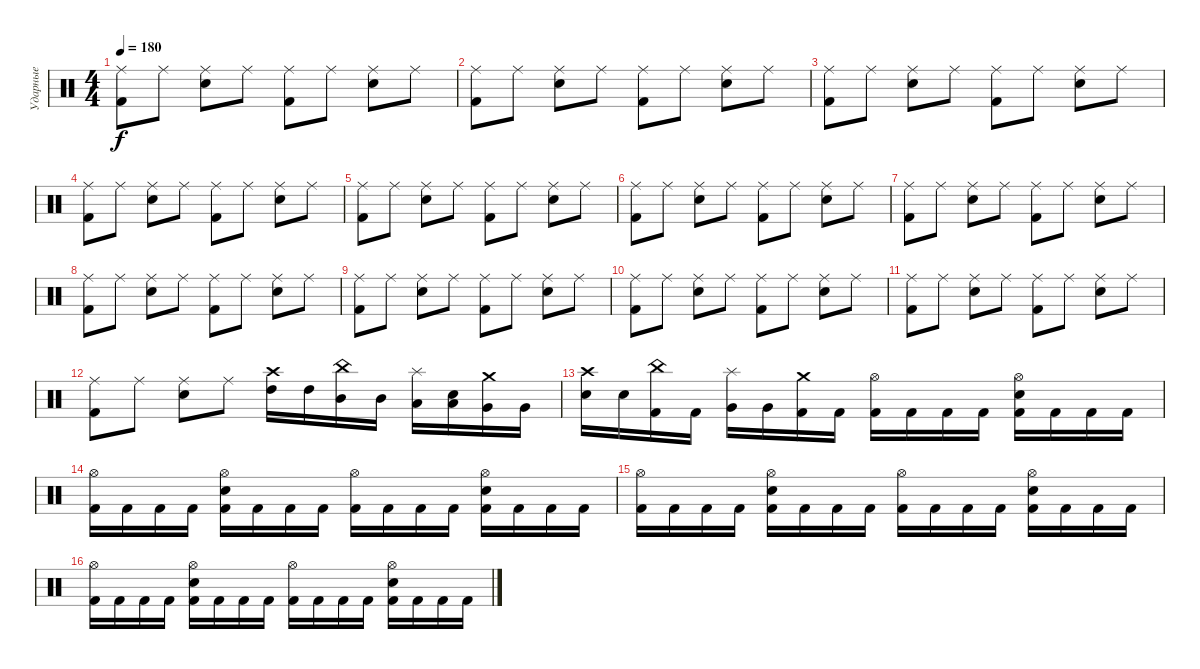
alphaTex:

\track ("Ударные" "Ударные") {instrument percussion}
\staff {score}
\articulation defaults
\ts (4 4)
\tempo 180
\clef neutral
\ks c
("Kick (hit) 2" "Ride (middle)").8{dy f} "Ride (middle)".8 ("Electric Snare (hit)" "Ride (middle)").8 "Ride (middle)".8 ("Kick (hit) 2" "Ride (middle)").8 "Ride (middle)".8 ("Electric Snare (hit)" "Ride (middle)").8 "Ride (middle)".8 |
("Kick (hit) 2" "Ride (middle)").8 "Ride (middle)".8 ("Electric Snare (hit)" "Ride (middle)").8 "Ride (middle)".8 ("Kick (hit) 2" "Ride (middle)").8 "Ride (middle)".8 ("Electric Snare (hit)" "Ride (middle)").8 "Ride (middle)".8 |
("Kick (hit) 2" "Ride (middle)").8 "Ride (middle)".8 ("Electric Snare (hit)" "Ride (middle)").8 "Ride (middle)".8 ("Kick (hit) 2" "Ride (middle)").8 "Ride (middle)".8 ("Electric Snare (hit)" "Ride (middle)").8 "Ride (middle)".8 |
("Kick (hit) 2" "Ride (middle)").8 "Ride (middle)".8 ("Electric Snare (hit)" "Ride (middle)").8 "Ride (middle)".8 ("Kick (hit) 2" "Ride (middle)").8 "Ride (middle)".8 ("Electric Snare (hit)" "Ride (middle)").8 "Ride (middle)".8 |
("Kick (hit) 2" "Ride (middle)").8 "Ride (middle)".8 ("Electric Snare (hit)" "Ride (middle)").8 "Ride (middle)".8 ("Kick (hit) 2" "Ride (middle)").8 "Ride (middle)".8 ("Electric Snare (hit)" "Ride (middle)").8 "Ride (middle)".8 |
("Kick (hit) 2" "Ride (middle)").8 "Ride (middle)".8 ("Electric Snare (hit)" "Ride (middle)").8 "Ride (middle)".8 ("Kick (hit) 2" "Ride (middle)").8 "Ride (middle)".8 ("Electric Snare (hit)" "Ride (middle)").8 "Ride (middle)".8 |
("Kick (hit) 2" "Ride (middle)").8 "Ride (middle)".8 ("Electric Snare (hit)" "Ride (middle)").8 "Ride (middle)".8 ("Kick (hit) 2" "Ride (middle)").8 "Ride (middle)".8 ("Electric Snare (hit)" "Ride (middle)").8 "Ride (middle)".8 |
("Kick (hit) 2" "Ride (middle)").8 "Ride (middle)".8 ("Electric Snare (hit)" "Ride (middle)").8 "Ride (middle)".8 ("Kick (hit) 2" "Ride (middle)").8 "Ride (middle)".8 ("Electric Snare (hit)" "Ride (middle)").8 "Ride (middle)".8 |
("Kick (hit) 2" "Ride (middle)").8 "Ride (middle)".8 ("Electric Snare (hit)" "Ride (middle)").8 "Ride (middle)".8 ("Kick (hit) 2" "Ride (middle)").8 "Ride (middle)".8 ("Electric Snare (hit)" "Ride (middle)").8 "Ride (middle)".8 |
("Kick (hit) 2" "Ride (middle)").8 "Ride (middle)".8 ("Electric Snare (hit)" "Ride (middle)").8 "Ride (middle)".8 ("Kick (hit) 2" "Ride (middle)").8 "Ride (middle)".8 ("Electric Snare (hit)" "Ride (middle)").8 "Ride (middle)".8 |
("Kick (hit) 2" "Ride (middle)").8 "Ride (middle)".8 ("Electric Snare (hit)" "Ride (middle)").8 "Ride (middle)".8 ("Kick (hit) 2" "Ride (middle)").8 "Ride (middle)".8 ("Electric Snare (hit)" "Ride (middle)").8 "Ride (middle)".8 |
("Kick (hit) 2" "Ride (middle)").8 "Ride (middle)".8 ("Electric Snare (hit)" "Ride (middle)").8 "Ride (middle)".8 ("High Tom (hit)" "Crash high (hit)").16 "High Tom (hit)".16 ("Mid Tom (hit)" "China (hit)").16 "Mid Tom (hit)".16 ("Low Tom (hit)" "Splash (hit)").16 ("Low Tom (hit)" "Snare (hit) 2").16 ("Very Low Tom (hit)" "Crash medium (hit)").16 "Very Low Tom (hit)".16 |
("Snare (hit) 2" "Crash high (hit)").16 "Snare (hit) 2".16 ("Kick (hit) 2" "China (hit)").16 "Kick (hit) 2".16 ("Very Low Tom (hit)" "Splash (hit)").16 "Very Low Tom (hit)".16 ("Kick (hit) 2" "Crash medium (hit)").16 "Kick (hit) 2".16 ("Kick (hit) 2" "Hi-Hat (open)").16 "Kick (hit) 2".16 "Kick (hit) 2".16 "Kick (hit) 2".16 ("Kick (hit) 2" "Electric Snare (hit)" "Hi-Hat (open)").16 "Kick (hit) 2".16 "Kick (hit) 2".16 "Kick (hit) 2".16 |
("Kick (hit) 2" "Hi-Hat (open)").16 "Kick (hit) 2".16 "Kick (hit) 2".16 "Kick (hit) 2".16 ("Kick (hit) 2" "Electric Snare (hit)" "Hi-Hat (open)").16 "Kick (hit) 2".16 "Kick (hit) 2".16 "Kick (hit) 2".16 ("Kick (hit) 2" "Hi-Hat (open)").16 "Kick (hit) 2".16 "Kick (hit) 2".16 "Kick (hit) 2".16 ("Kick (hit) 2" "Electric Snare (hit)" "Hi-Hat (open)").16 "Kick (hit) 2".16 "Kick (hit) 2".16 "Kick (hit) 2".16 |
("Kick (hit) 2" "Hi-Hat (open)").16 "Kick (hit) 2".16 "Kick (hit) 2".16 "Kick (hit) 2".16 ("Kick (hit) 2" "Electric Snare (hit)" "Hi-Hat (open)").16 "Kick (hit) 2".16 "Kick (hit) 2".16 "Kick (hit) 2".16 ("Kick (hit) 2" "Hi-Hat (open)").16 "Kick (hit) 2".16 "Kick (hit) 2".16 "Kick (hit) 2".16 ("Kick (hit) 2" "Electric Snare (hit)" "Hi-Hat (open)").16 "Kick (hit) 2".16 "Kick (hit) 2".16 "Kick (hit) 2".16 |
("Kick (hit) 2" "Hi-Hat (open)").16 "Kick (hit) 2".16 "Kick (hit) 2".16 "Kick (hit) 2".16 ("Kick (hit) 2" "Electric Snare (hit)" "Hi-Hat (open)").16 "Kick (hit) 2".16 "Kick (hit) 2".16 "Kick (hit) 2".16 ("Kick (hit) 2" "Hi-Hat (open)").16 "Kick (hit) 2".16 "Kick (hit) 2".16 "Kick (hit) 2".16 ("Kick (hit) 2" "Electric Snare (hit)" "Hi-Hat (open)").16 "Kick (hit) 2".16 "Kick (hit) 2".16 "Kick (hit) 2".16
